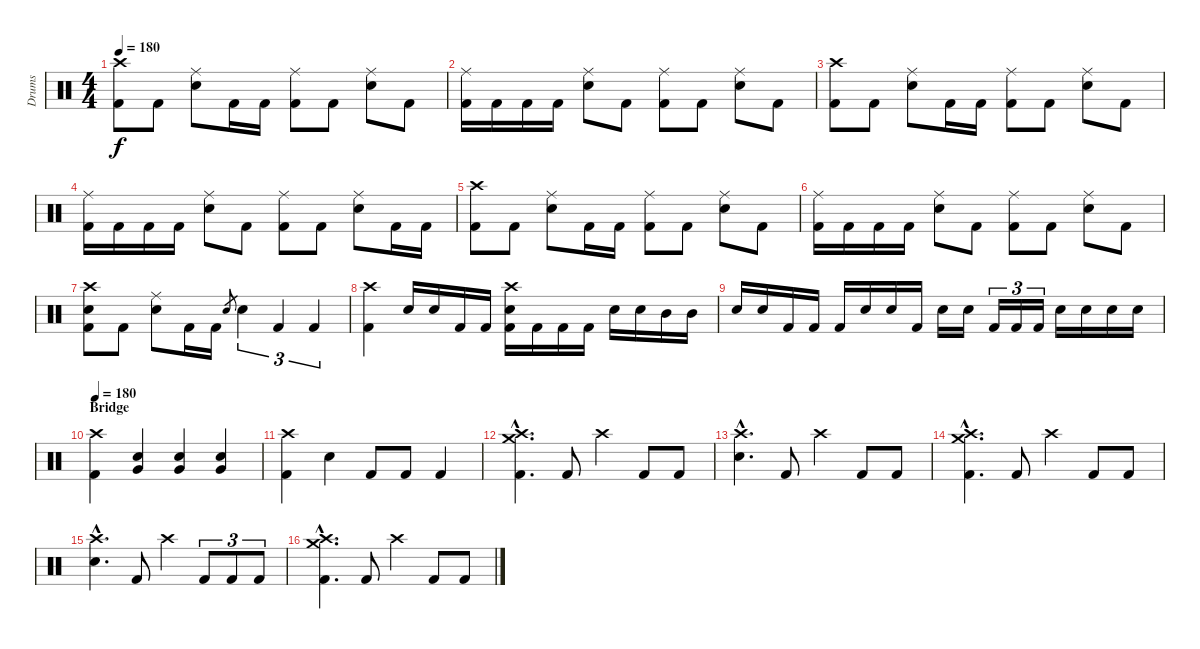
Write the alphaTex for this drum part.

\track ("Drums" "Drums") {instrument percussion}
\staff {score}
\articulation defaults
\ts (4 4)
\tempo 180
\clef neutral
\ks c
("Crash high (hit)" "Kick (hit) 2").8{dy f} "Kick (hit) 2".8 ("Ride (middle)" "Electric Snare (hit)").8 "Kick (hit) 2".16 "Kick (hit) 2".16 ("Ride (middle)" "Kick (hit) 2").8 "Kick (hit) 2".8 ("Ride (middle)" "Electric Snare (hit)").8 "Kick (hit) 2".8 |
("Ride (middle)" "Kick (hit) 2").16 "Kick (hit) 2".16 "Kick (hit) 2".16 "Kick (hit) 2".16 ("Ride (middle)" "Electric Snare (hit)").8 "Kick (hit) 2".8 ("Ride (middle)" "Kick (hit) 2").8 "Kick (hit) 2".8 ("Ride (middle)" "Electric Snare (hit)").8 "Kick (hit) 2".8 |
("Crash high (hit)" "Kick (hit) 2").8 "Kick (hit) 2".8 ("Ride (middle)" "Electric Snare (hit)").8 "Kick (hit) 2".16 "Kick (hit) 2".16 ("Ride (middle)" "Kick (hit) 2").8 "Kick (hit) 2".8 ("Ride (middle)" "Electric Snare (hit)").8 "Kick (hit) 2".8 |
("Ride (middle)" "Kick (hit) 2").16 "Kick (hit) 2".16 "Kick (hit) 2".16 "Kick (hit) 2".16 ("Ride (middle)" "Electric Snare (hit)").8 "Kick (hit) 2".8 ("Ride (middle)" "Kick (hit) 2").8 "Kick (hit) 2".8 ("Ride (middle)" "Electric Snare (hit)").8 "Kick (hit) 2".16 "Kick (hit) 2".16 |
("Crash high (hit)" "Kick (hit) 2").8 "Kick (hit) 2".8 ("Ride (middle)" "Electric Snare (hit)").8 "Kick (hit) 2".16 "Kick (hit) 2".16 ("Ride (middle)" "Kick (hit) 2").8 "Kick (hit) 2".8 ("Ride (middle)" "Electric Snare (hit)").8 "Kick (hit) 2".8 |
("Ride (middle)" "Kick (hit) 2").16 "Kick (hit) 2".16 "Kick (hit) 2".16 "Kick (hit) 2".16 ("Ride (middle)" "Electric Snare (hit)").8 "Kick (hit) 2".8 ("Ride (middle)" "Kick (hit) 2").8 "Kick (hit) 2".8 ("Ride (middle)" "Electric Snare (hit)").8 "Kick (hit) 2".8 |
("Crash high (hit)" "Electric Snare (hit)" "Kick (hit) 2").8 "Kick (hit) 2".8 ("Ride (middle)" "Electric Snare (hit)").8 "Kick (hit) 2".16 "Kick (hit) 2".16 "Electric Snare (hit)".8{gr} "Electric Snare (hit)".4{tu (3 2)} "Kick (hit) 2".4{tu (3 2)} "Kick (hit) 2".4{tu (3 2)} |
("Crash high (hit)" "Kick (hit) 2").4 "Electric Snare (hit)".16 "Electric Snare (hit)".16 "Kick (hit) 2".16 "Kick (hit) 2".16 ("Crash high (hit)" "Electric Snare (hit)" "Kick (hit) 2").16 "Kick (hit) 2".16 "Kick (hit) 2".16 "Kick (hit) 2".16 "Electric Snare (hit)".16 "Electric Snare (hit)".16 "Mid Tom (hit)".16 "Mid Tom (hit)".16 |
"Electric Snare (hit)".16 "Electric Snare (hit)".16 "Kick (hit) 2".16 "Kick (hit) 2".16 "Kick (hit) 2".16 "Electric Snare (hit)".16 "Electric Snare (hit)".16 "Kick (hit) 2".16 "Electric Snare (hit)".16 "Electric Snare (hit)".16 "Kick (hit) 2".16{tu (3 2)} "Kick (hit) 2".16{tu (3 2)} "Kick (hit) 2".16{tu (3 2)} "Electric Snare (hit)".16 "Electric Snare (hit)".16 "Electric Snare (hit)".16 "Electric Snare (hit)".16 |
\section ("" "Bridge")
\tempo 180
("Crash high (hit)" "Kick (hit) 2").4 ("Very Low Tom (hit)" "Electric Snare (hit)").4 ("Very Low Tom (hit)" "Electric Snare (hit)").4 ("Very Low Tom (hit)" "Electric Snare (hit)").4 |
("Crash high (hit)" "Kick (hit) 2").4 "Electric Snare (hit)".4 "Kick (hit) 2".8 "Kick (hit) 2".8 "Kick (hit) 2".4 |
("Crash high (hit)"{hac} "Crash medium (hit)"{hac} "Kick (hit) 2"{hac}).4{d} "Kick (hit) 2".8 "Crash high (hit)".4 "Kick (hit) 2".8 "Kick (hit) 2".8 |
("Crash high (hit)"{hac} "Electric Snare (hit)"{hac}).4{d} "Kick (hit) 2".8 "Crash high (hit)".4 "Kick (hit) 2".8 "Kick (hit) 2".8 |
("Crash high (hit)"{hac} "Crash medium (hit)"{hac} "Kick (hit) 2"{hac}).4{d} "Kick (hit) 2".8 "Crash high (hit)".4 "Kick (hit) 2".8 "Kick (hit) 2".8 |
("Crash high (hit)"{hac} "Electric Snare (hit)"{hac}).4{d} "Kick (hit) 2".8 "Crash high (hit)".4 "Kick (hit) 2".8{tu (3 2)} "Kick (hit) 2".8{tu (3 2)} "Kick (hit) 2".8{tu (3 2)} |
("Crash high (hit)"{hac} "Crash medium (hit)"{hac} "Kick (hit) 2"{hac}).4{d} "Kick (hit) 2".8 "Crash high (hit)".4 "Kick (hit) 2".8 "Kick (hit) 2".8
